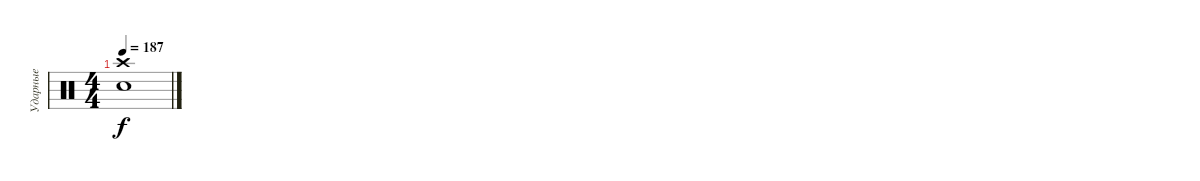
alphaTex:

\track ("Ударные" "Ударные") {instrument percussion}
\staff {score}
\articulation defaults
\ts (4 4)
\tempo 187
\clef neutral
\ks c
("Crash high (hit)" "Snare (hit) 2").1{dy f}
